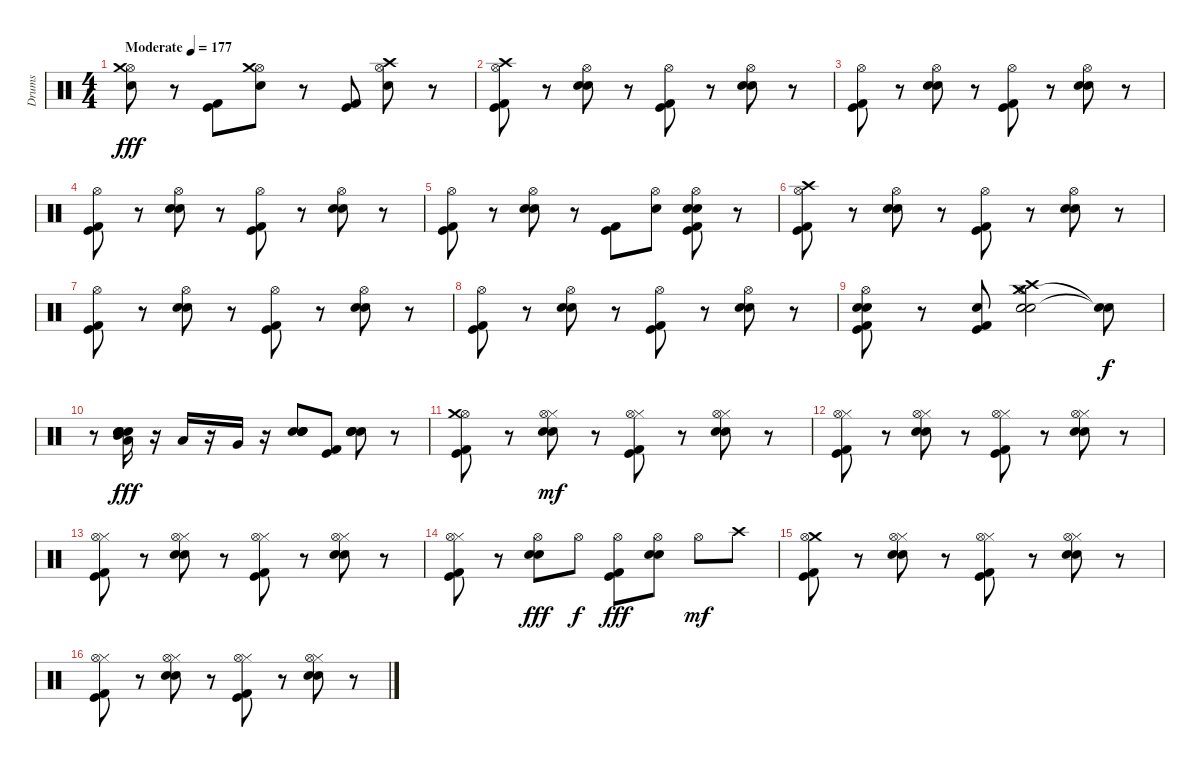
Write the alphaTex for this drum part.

\track ("Drums" "Drums") {instrument percussion}
\staff {score}
\articulation defaults
\ts (4 4)
\tempo (177 "Moderate")
\clef neutral
\ks c
("Snare (hit) 2" "Hi-Hat (open)" "Crash medium (hit)").8{dy fff} r.8 ("Kick (hit) 2" "Kick (hit)").8 ("Snare (hit) 2" "Hi-Hat (open)" "Crash medium (hit)").8 r.8 ("Kick (hit) 2" "Kick (hit)").8 ("Snare (hit) 2" "Hi-Hat (open)" "Crash high (hit)").8 r.8 |
("Hi-Hat (open)" "Kick (hit) 2" "Kick (hit)" "Crash high (hit)").8 r.8 ("Hi-Hat (open)" "Electric Snare (hit)" "Snare (hit) 2").8 r.8 ("Hi-Hat (open)" "Kick (hit) 2" "Kick (hit)").8 r.8 ("Hi-Hat (open)" "Electric Snare (hit)" "Snare (hit) 2").8 r.8 |
("Hi-Hat (open)" "Kick (hit) 2" "Kick (hit)").8 r.8 ("Hi-Hat (open)" "Electric Snare (hit)" "Snare (hit) 2").8 r.8 ("Hi-Hat (open)" "Kick (hit) 2" "Kick (hit)").8 r.8 ("Hi-Hat (open)" "Electric Snare (hit)" "Snare (hit) 2").8 r.8 |
("Hi-Hat (open)" "Kick (hit) 2" "Kick (hit)").8 r.8 ("Hi-Hat (open)" "Electric Snare (hit)" "Snare (hit) 2").8 r.8 ("Hi-Hat (open)" "Kick (hit) 2" "Kick (hit)").8 r.8 ("Hi-Hat (open)" "Electric Snare (hit)" "Snare (hit) 2").8 r.8 |
("Hi-Hat (open)" "Kick (hit)" "Kick (hit) 2").8 r.8 ("Hi-Hat (open)" "Electric Snare (hit)" "Snare (hit) 2").8 r.8 ("Kick (hit) 2" "Kick (hit)").8 ("Hi-Hat (open)" "Snare (hit) 2").8 ("Hi-Hat (open)" "Electric Snare (hit)" "Snare (hit) 2" "Kick (hit) 2" "Kick (hit)").8 r.8 |
("Hi-Hat (open)" "Kick (hit) 2" "Kick (hit)" "Crash high (hit)").8 r.8 ("Hi-Hat (open)" "Electric Snare (hit)" "Snare (hit) 2").8 r.8 ("Hi-Hat (open)" "Kick (hit) 2" "Kick (hit)").8 r.8 ("Hi-Hat (open)" "Electric Snare (hit)" "Snare (hit) 2").8 r.8 |
("Hi-Hat (open)" "Kick (hit) 2" "Kick (hit)").8 r.8 ("Hi-Hat (open)" "Electric Snare (hit)" "Snare (hit) 2").8 r.8 ("Hi-Hat (open)" "Kick (hit) 2" "Kick (hit)").8 r.8 ("Hi-Hat (open)" "Electric Snare (hit)" "Snare (hit) 2").8 r.8 |
("Hi-Hat (open)" "Kick (hit) 2" "Kick (hit)").8 r.8 ("Hi-Hat (open)" "Electric Snare (hit)" "Snare (hit) 2").8 r.8 ("Hi-Hat (open)" "Kick (hit) 2" "Kick (hit)").8 r.8 ("Hi-Hat (open)" "Electric Snare (hit)" "Snare (hit) 2").8 r.8 |
("Hi-Hat (open)" "Electric Snare (hit)" "Snare (hit) 2" "Kick (hit) 2" "Kick (hit)").8 r.8 ("Snare (hit) 2" "Kick (hit) 2" "Kick (hit)").8 ("Hi-Hat (open)" "Electric Snare (hit)" "Snare (hit) 2" "Crash high (hit)" "Crash medium (hit)").2 ("Snare (hit)"{t} "Snare (hit)"{t}).8{dy f} |
r.8 ("Low Tom (hit)" "Snare (hit) 2" "Electric Snare (hit)" "Mid Tom (hit)" "Electric Snare (hit)" "Snare (hit) 2").16{dy fff} r.16 "Low Tom (hit)".16 r.16 "Very Low Tom (hit)".16 r.16 ("Snare (hit) 2" "Electric Snare (hit)" "Electric Snare (hit)" "Snare (hit) 2").8 ("Kick (hit)" "Kick (hit) 2").8 ("Electric Snare (hit)" "Snare (hit) 2" "Electric Snare (hit)" "Snare (hit) 2").8 r.8 |
("Hi-Hat (open)" "Kick (hit) 2" "Kick (hit)" "Crash medium (hit)").8 r.8 ("Electric Snare (hit)" "Snare (hit) 2" "Hi-Hat (closed)" "Hi-Hat (open)").8{dy mf} r.8 ("Kick (hit) 2" "Kick (hit)" "Hi-Hat (closed)" "Hi-Hat (open)").8 r.8 ("Electric Snare (hit)" "Snare (hit) 2" "Hi-Hat (closed)" "Hi-Hat (open)").8 r.8 |
("Hi-Hat (closed)" "Kick (hit) 2" "Kick (hit)" "Hi-Hat (open)").8 r.8 ("Hi-Hat (closed)" "Electric Snare (hit)" "Snare (hit) 2" "Hi-Hat (open)").8 r.8 ("Hi-Hat (closed)" "Kick (hit) 2" "Kick (hit)" "Hi-Hat (open)").8 r.8 ("Hi-Hat (closed)" "Electric Snare (hit)" "Snare (hit) 2" "Hi-Hat (open)").8 r.8 |
("Hi-Hat (closed)" "Kick (hit) 2" "Kick (hit)" "Hi-Hat (open)").8 r.8 ("Hi-Hat (closed)" "Electric Snare (hit)" "Snare (hit) 2" "Hi-Hat (open)").8 r.8 ("Hi-Hat (closed)" "Kick (hit) 2" "Kick (hit)" "Hi-Hat (open)").8 r.8 ("Hi-Hat (closed)" "Electric Snare (hit)" "Snare (hit) 2" "Hi-Hat (open)").8 r.8 |
("Kick (hit) 2" "Kick (hit)" "Hi-Hat (closed)" "Hi-Hat (open)").8 r.8 ("Hi-Hat (open)" "Electric Snare (hit)" "Snare (hit) 2").8{dy fff} "Hi-Hat (open)".8{dy f} ("Hi-Hat (open)" "Kick (hit) 2" "Kick (hit)").8{dy fff} ("Hi-Hat (open)" "Electric Snare (hit)" "Snare (hit) 2").8 "Hi-Hat (open)".8{dy mf} "Crash high (hit)".8 |
("Kick (hit) 2" "Kick (hit)" "Crash medium (hit)" "Hi-Hat (open)").8 r.8 ("Hi-Hat (closed)" "Electric Snare (hit)" "Snare (hit) 2" "Hi-Hat (open)").8 r.8 ("Hi-Hat (closed)" "Kick (hit) 2" "Kick (hit)" "Hi-Hat (open)").8 r.8 ("Hi-Hat (closed)" "Electric Snare (hit)" "Snare (hit) 2" "Hi-Hat (open)").8 r.8 |
("Hi-Hat (closed)" "Kick (hit) 2" "Kick (hit)" "Hi-Hat (open)").8 r.8 ("Hi-Hat (closed)" "Electric Snare (hit)" "Snare (hit) 2" "Hi-Hat (open)").8 r.8 ("Hi-Hat (closed)" "Kick (hit) 2" "Kick (hit)" "Hi-Hat (open)").8 r.8 ("Hi-Hat (closed)" "Electric Snare (hit)" "Snare (hit) 2" "Hi-Hat (open)").8 r.8
